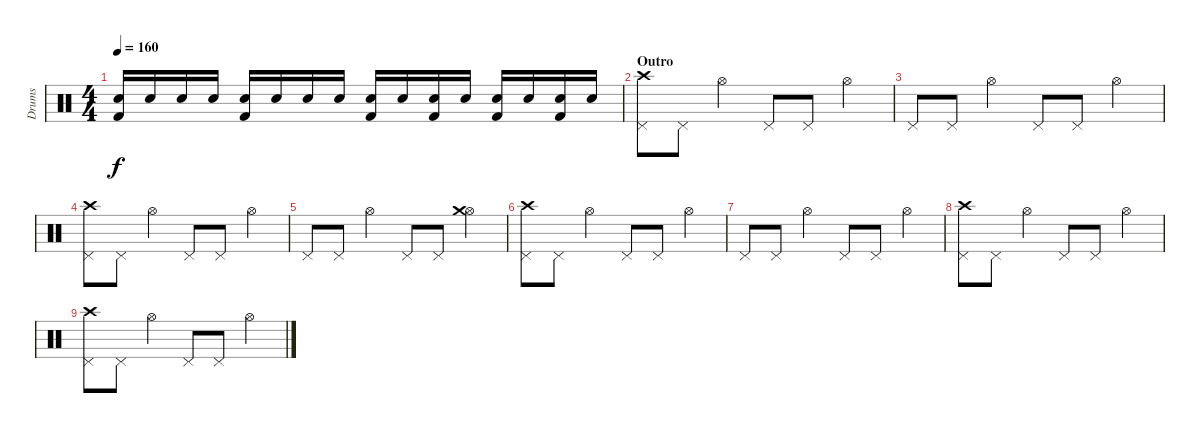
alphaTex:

\track ("Drums" "Drums") {instrument percussion}
\staff {score}
\articulation defaults
\ts (4 4)
\tempo 160
\clef neutral
\ks c
("Kick (hit) 2" "Electric Snare (hit)").16{dy f} "Electric Snare (hit)".16 "Electric Snare (hit)".16 "Electric Snare (hit)".16 ("Kick (hit) 2" "Electric Snare (hit)").16 "Electric Snare (hit)".16 "Electric Snare (hit)".16 "Electric Snare (hit)".16 ("Kick (hit) 2" "Electric Snare (hit)").16 "Electric Snare (hit)".16 ("Kick (hit) 2" "Electric Snare (hit)").16 "Electric Snare (hit)".16 ("Kick (hit) 2" "Electric Snare (hit)").16 "Electric Snare (hit)".16 ("Kick (hit) 2" "Electric Snare (hit)").16 "Electric Snare (hit)".16 |
\section ("" "Outro")
("Crash high (hit)" "Pedal Hi-Hat (hit)").8 "Pedal Hi-Hat (hit)".8 "Hi-Hat (open)".4 "Pedal Hi-Hat (hit)".8 "Pedal Hi-Hat (hit)".8 "Hi-Hat (open)".4 |
"Pedal Hi-Hat (hit)".8 "Pedal Hi-Hat (hit)".8 "Hi-Hat (open)".4 "Pedal Hi-Hat (hit)".8 "Pedal Hi-Hat (hit)".8 "Hi-Hat (open)".4 |
("Crash high (hit)" "Pedal Hi-Hat (hit)").8 "Pedal Hi-Hat (hit)".8 "Hi-Hat (open)".4 "Pedal Hi-Hat (hit)".8 "Pedal Hi-Hat (hit)".8 "Hi-Hat (open)".4 |
"Pedal Hi-Hat (hit)".8 "Pedal Hi-Hat (hit)".8 "Hi-Hat (open)".4 "Pedal Hi-Hat (hit)".8 "Pedal Hi-Hat (hit)".8 ("Hi-Hat (open)" "Crash medium (hit)").4 |
("Crash high (hit)" "Pedal Hi-Hat (hit)").8 "Pedal Hi-Hat (hit)".8 "Hi-Hat (open)".4 "Pedal Hi-Hat (hit)".8 "Pedal Hi-Hat (hit)".8 "Hi-Hat (open)".4 |
"Pedal Hi-Hat (hit)".8 "Pedal Hi-Hat (hit)".8 "Hi-Hat (open)".4 "Pedal Hi-Hat (hit)".8 "Pedal Hi-Hat (hit)".8 "Hi-Hat (open)".4 |
("Crash high (hit)" "Pedal Hi-Hat (hit)").8 "Pedal Hi-Hat (hit)".8 "Hi-Hat (open)".4 "Pedal Hi-Hat (hit)".8 "Pedal Hi-Hat (hit)".8 "Hi-Hat (open)".4 |
("Crash high (hit)" "Pedal Hi-Hat (hit)").8 "Pedal Hi-Hat (hit)".8 "Hi-Hat (open)".4 "Pedal Hi-Hat (hit)".8 "Pedal Hi-Hat (hit)".8 "Hi-Hat (open)".4
